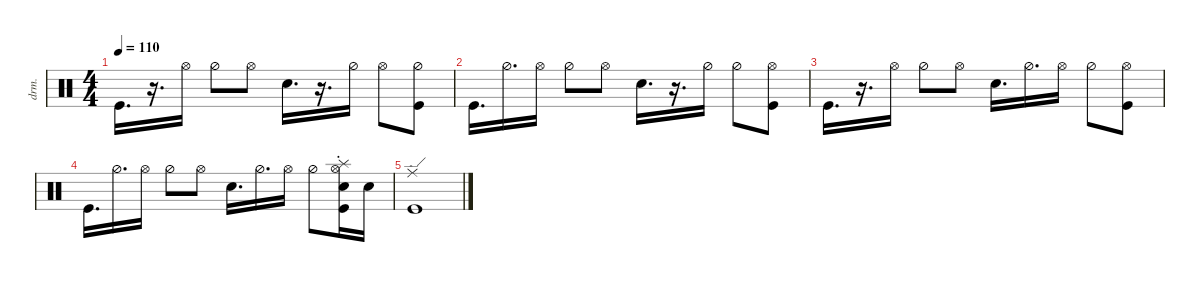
\defaultSystemsLayout 4
\hideDynamics
\bracketExtendMode nobrackets
\otherSystemsTrackNameOrientation horizontal
\track ("Drumkit" "drm.") {instrument percussion}
\staff {score}
\articulation defaults
\ts (4 4)
\tempo 110
\clef neutral
\ks c "Kick (hit)".16{d dy mf beam Down}
r.16{d beam Down} "Hi-Hat (open)".16{beam Down} "Hi-Hat (half)".8{beam Down} "Hi-Hat (open)".8{beam Down} "Snare (hit) 2".16{d beam Down} r.16{d beam Down} "Hi-Hat (half)".16{beam Down} "Hi-Hat (open)".8{beam Down} ("Hi-Hat (half)" "Kick (hit)").8{beam Down} |
"Kick (hit)".16{d beam Down} "Hi-Hat (half)".16{d beam Down} "Hi-Hat (open)".16{beam Down} "Hi-Hat (half)".8{beam Down} "Hi-Hat (open)".8{beam Down} "Snare (hit) 2".16{d beam Down} r.16{d beam Down} "Hi-Hat (half)".16{beam Down} "Hi-Hat (half)".8{beam Down} ("Hi-Hat (open)" "Kick (hit)").8{beam Down} |
"Kick (hit)".16{d beam Down} r.16{d beam Down} "Hi-Hat (open)".16{beam Down} "Hi-Hat (half)".8{beam Down} "Hi-Hat (open)".8{beam Down} "Snare (hit) 2".16{d beam Down} "Hi-Hat (half)".16{d beam Down} "Hi-Hat (open)".16{beam Down} "Hi-Hat (half)".8{beam Down} ("Hi-Hat (open)" "Kick (hit)").8{beam Down} |
"Kick (hit)".16{d beam Down} "Hi-Hat (half)".16{d beam Down} "Hi-Hat (open)".16{beam Down} "Hi-Hat (half)".8{beam Down} "Hi-Hat (open)".8{beam Down} "Snare (hit) 2".16{d beam Down} "Hi-Hat (half)".16{d beam Down} "Hi-Hat (open)".16{beam Down} "Hi-Hat (half)".8{beam Down} ("Hi-Hat (open)" "Kick (hit)" "Splash (choke)" "Snare (hit) 2").16{beam Down} "Snare (hit) 2".16{beam Down} |
("Ride (edge)" "Kick (hit)").1{beam Down}
